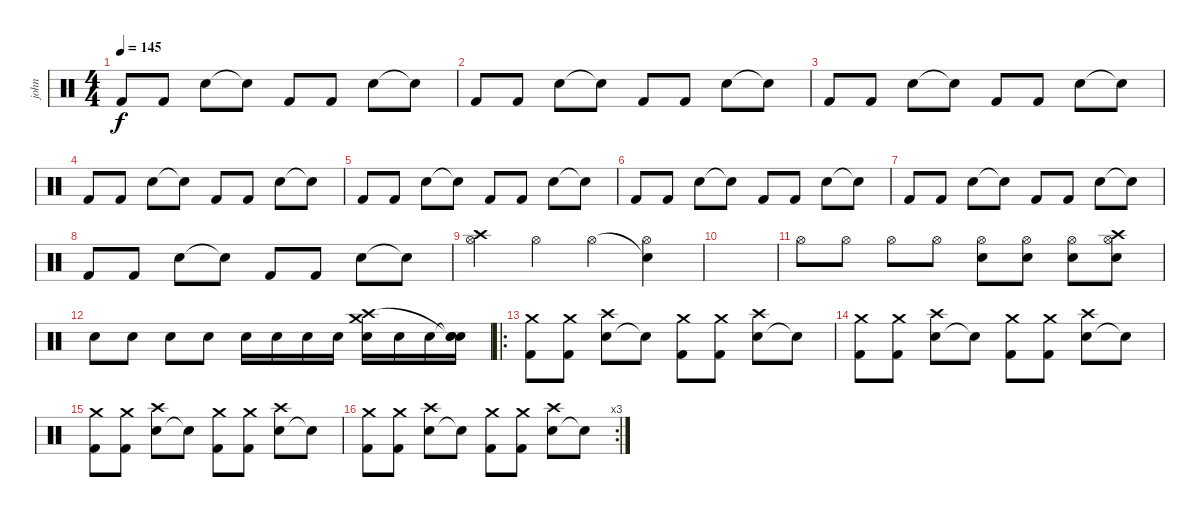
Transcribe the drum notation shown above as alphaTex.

\track ("john" "john") {instrument percussion}
\staff {score}
\articulation defaults
\ts (4 4)
\tempo 145
\clef neutral
\ks c "Kick (hit) 2".8{dy f} "Kick (hit) 2".8 "Snare (hit) 2".8 "Snare (hit)"{t}.8 "Kick (hit) 2".8 "Kick (hit) 2".8 "Snare (hit) 2".8 "Snare (hit)"{t}.8
|
"Kick (hit) 2".8 "Kick (hit) 2".8 "Snare (hit) 2".8 "Snare (hit)"{t}.8 "Kick (hit) 2".8 "Kick (hit) 2".8 "Snare (hit) 2".8 "Snare (hit)"{t}.8 |
"Kick (hit) 2".8 "Kick (hit) 2".8 "Snare (hit) 2".8 "Snare (hit)"{t}.8 "Kick (hit) 2".8 "Kick (hit) 2".8 "Snare (hit) 2".8 "Snare (hit)"{t}.8 |
"Kick (hit) 2".8 "Kick (hit) 2".8 "Snare (hit) 2".8 "Snare (hit)"{t}.8 "Kick (hit) 2".8 "Kick (hit) 2".8 "Snare (hit) 2".8 "Snare (hit)"{t}.8 |
"Kick (hit) 2".8 "Kick (hit) 2".8 "Snare (hit) 2".8 "Snare (hit)"{t}.8 "Kick (hit) 2".8 "Kick (hit) 2".8 "Snare (hit) 2".8 "Snare (hit)"{t}.8 |
"Kick (hit) 2".8 "Kick (hit) 2".8 "Snare (hit) 2".8 "Snare (hit)"{t}.8 "Kick (hit) 2".8 "Kick (hit) 2".8 "Snare (hit) 2".8 "Snare (hit)"{t}.8 |
"Kick (hit) 2".8 "Kick (hit) 2".8 "Snare (hit) 2".8 "Snare (hit)"{t}.8 "Kick (hit) 2".8 "Kick (hit) 2".8 "Snare (hit) 2".8 "Snare (hit)"{t}.8 |
"Kick (hit) 2".8 "Kick (hit) 2".8 "Snare (hit) 2".8 "Snare (hit)"{t}.8 "Kick (hit) 2".8 "Kick (hit) 2".8 "Snare (hit) 2".8 "Snare (hit)"{t}.8 |
("Crash high (hit)" "Hi-Hat (open)").4 "Hi-Hat (open)".4 "Hi-Hat (open)".4 ("Snare (hit)"{t} "Hi-Hat (open)").4 |
|
"Hi-Hat (open)".8 "Hi-Hat (open)".8 "Hi-Hat (open)".8 "Hi-Hat (open)".8 ("Hi-Hat (open)" "Electric Snare (hit)").8 ("Hi-Hat (open)" "Electric Snare (hit)").8 ("Hi-Hat (open)" "Electric Snare (hit)").8 ("Hi-Hat (open)" "Snare (hit) 2" "Crash high (hit)").8 |
"Snare (hit) 2".8 "Snare (hit) 2".8 "Snare (hit) 2".8 "Snare (hit) 2".8 "Snare (hit) 2".16 "Snare (hit) 2".16 "Snare (hit) 2".16 "Snare (hit) 2".16 ("Crash medium (hit)" "Crash high (hit)" "Snare (hit) 2").16 "Snare (hit) 2".16 "Snare (hit) 2".16 ("Snare (hit)"{t} "Snare (hit)"{t} "Snare (hit) 2").16 |
\ro
("Kick (hit) 2" "Crash medium (hit)").8 ("Kick (hit) 2" "Crash medium (hit)").8 ("Snare (hit) 2" "Crash high (hit)").8 "Snare (hit)"{t}.8 ("Kick (hit) 2" "Crash medium (hit)").8 ("Kick (hit) 2" "Crash medium (hit)").8 ("Snare (hit) 2" "Crash high (hit)").8 "Snare (hit)"{t}.8 |
("Kick (hit) 2" "Crash medium (hit)").8 ("Kick (hit) 2" "Crash medium (hit)").8 ("Snare (hit) 2" "Crash high (hit)").8 "Snare (hit)"{t}.8 ("Kick (hit) 2" "Crash medium (hit)").8 ("Kick (hit) 2" "Crash medium (hit)").8 ("Snare (hit) 2" "Crash high (hit)").8 "Snare (hit)"{t}.8 |
("Kick (hit) 2" "Crash medium (hit)").8 ("Kick (hit) 2" "Crash medium (hit)").8 ("Snare (hit) 2" "Crash high (hit)").8 "Snare (hit)"{t}.8 ("Kick (hit) 2" "Crash medium (hit)").8 ("Kick (hit) 2" "Crash medium (hit)").8 ("Snare (hit) 2" "Crash high (hit)").8 "Snare (hit)"{t}.8 |
\rc 3
("Kick (hit) 2" "Crash medium (hit)").8 ("Kick (hit) 2" "Crash medium (hit)").8 ("Snare (hit) 2" "Crash high (hit)").8 "Snare (hit)"{t}.8 ("Kick (hit) 2" "Crash medium (hit)").8 ("Kick (hit) 2" "Crash medium (hit)").8 ("Snare (hit) 2" "Crash high (hit)").8 "Snare (hit)"{t}.8
